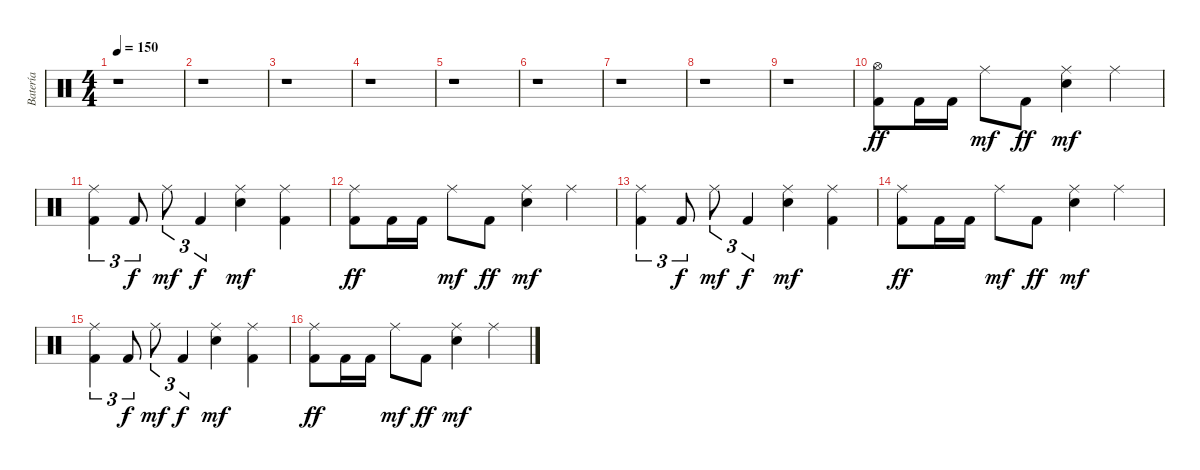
\track ("Batería" "Batería") {instrument percussion}
\staff {score}
\articulation defaults
\ts (4 4)
\tempo 150
\clef neutral
\ks c
r.1{dy ff} |
r.1 |
r.1 |
r.1 |
r.1 |
r.1 |
r.1 |
r.1 |
r.1 |
("Hi-Hat (open)" "Kick (hit) 2").8 "Kick (hit) 2".16 "Kick (hit) 2".16 "Ride (middle)".8{dy mf} "Kick (hit) 2".8{dy ff} ("Ride (middle)" "Electric Snare (hit)").4{dy mf} "Ride (middle)".4 |
("Ride (middle)" "Kick (hit) 2").4{tu (3 2)} "Kick (hit) 2".8{tu (3 2) dy f} "Ride (middle)".8{tu (3 2) dy mf} "Kick (hit) 2".4{tu (3 2) dy f} ("Ride (middle)" "Electric Snare (hit)").4{dy mf} ("Ride (middle)" "Kick (hit) 2").4 |
("Ride (middle)" "Kick (hit) 2").8{dy ff} "Kick (hit) 2".16 "Kick (hit) 2".16 "Ride (middle)".8{dy mf} "Kick (hit) 2".8{dy ff} ("Ride (middle)" "Electric Snare (hit)").4{dy mf} "Ride (middle)".4 |
("Ride (middle)" "Kick (hit) 2").4{tu (3 2)} "Kick (hit) 2".8{tu (3 2) dy f} "Ride (middle)".8{tu (3 2) dy mf} "Kick (hit) 2".4{tu (3 2) dy f} ("Ride (middle)" "Electric Snare (hit)").4{dy mf} ("Ride (middle)" "Kick (hit) 2").4 |
("Ride (middle)" "Kick (hit) 2").8{dy ff} "Kick (hit) 2".16 "Kick (hit) 2".16 "Ride (middle)".8{dy mf} "Kick (hit) 2".8{dy ff} ("Ride (middle)" "Electric Snare (hit)").4{dy mf} "Ride (middle)".4 |
("Ride (middle)" "Kick (hit) 2").4{tu (3 2)} "Kick (hit) 2".8{tu (3 2) dy f} "Ride (middle)".8{tu (3 2) dy mf} "Kick (hit) 2".4{tu (3 2) dy f} ("Ride (middle)" "Electric Snare (hit)").4{dy mf} ("Ride (middle)" "Kick (hit) 2").4 |
("Ride (middle)" "Kick (hit) 2").8{dy ff} "Kick (hit) 2".16 "Kick (hit) 2".16 "Ride (middle)".8{dy mf} "Kick (hit) 2".8{dy ff} ("Ride (middle)" "Electric Snare (hit)").4{dy mf} "Ride (middle)".4
